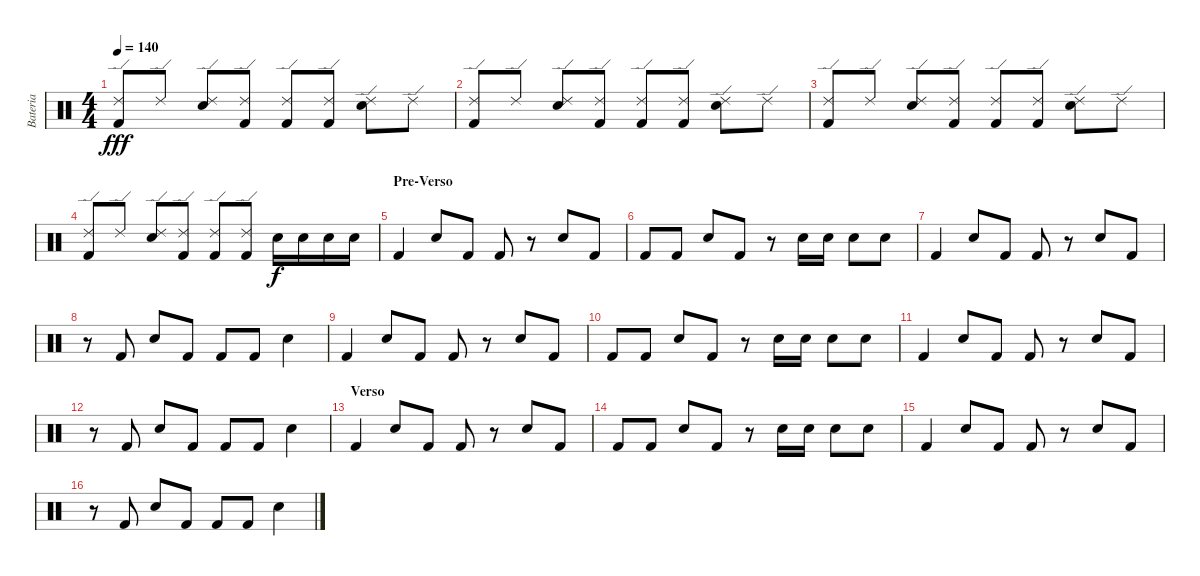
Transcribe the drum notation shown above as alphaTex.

\track ("Bateria" "Bateria") {instrument percussion}
\staff {score}
\articulation defaults
\ts (4 4)
\tempo 140
\clef neutral
\ks c
("Ride (edge) 2" "Kick (hit) 2").8{dy fff} "Ride (edge) 2".8 ("Ride (edge) 2" "Snare (hit) 2").8 ("Ride (edge) 2" "Kick (hit) 2").8 ("Ride (edge) 2" "Kick (hit) 2").8 ("Ride (edge) 2" "Kick (hit) 2").8 ("Ride (edge) 2" "Snare (hit) 2").8 "Ride (edge) 2".8 |
("Ride (edge) 2" "Kick (hit) 2").8 "Ride (edge) 2".8 ("Ride (edge) 2" "Snare (hit) 2").8 ("Ride (edge) 2" "Kick (hit) 2").8 ("Ride (edge) 2" "Kick (hit) 2").8 ("Ride (edge) 2" "Kick (hit) 2").8 ("Ride (edge) 2" "Snare (hit) 2").8 "Ride (edge) 2".8 |
("Ride (edge) 2" "Kick (hit) 2").8 "Ride (edge) 2".8 ("Ride (edge) 2" "Snare (hit) 2").8 ("Ride (edge) 2" "Kick (hit) 2").8 ("Ride (edge) 2" "Kick (hit) 2").8 ("Ride (edge) 2" "Kick (hit) 2").8 ("Ride (edge) 2" "Snare (hit) 2").8 "Ride (edge) 2".8 |
("Ride (edge) 2" "Kick (hit) 2").8 "Ride (edge) 2".8 ("Ride (edge) 2" "Snare (hit) 2").8 ("Ride (edge) 2" "Kick (hit) 2").8 ("Ride (edge) 2" "Kick (hit) 2").8 ("Ride (edge) 2" "Kick (hit) 2").8 "Snare (hit) 2".16{dy f} "Snare (hit) 2".16 "Snare (hit) 2".16 "Snare (hit) 2".16 |
\section ("" "Pre-Verso")
"Kick (hit) 2".4 "Snare (hit) 2".8 "Kick (hit) 2".8 "Kick (hit) 2".8 r.8 "Snare (hit) 2".8 "Kick (hit) 2".8 |
"Kick (hit) 2".8 "Kick (hit) 2".8 "Snare (hit) 2".8 "Kick (hit) 2".8 r.8 "Snare (hit) 2".16 "Snare (hit) 2".16 "Snare (hit) 2".8 "Snare (hit) 2".8 |
"Kick (hit) 2".4 "Snare (hit) 2".8 "Kick (hit) 2".8 "Kick (hit) 2".8 r.8 "Snare (hit) 2".8 "Kick (hit) 2".8 |
r.8 "Kick (hit) 2".8 "Snare (hit) 2".8 "Kick (hit) 2".8 "Kick (hit) 2".8 "Kick (hit) 2".8 "Snare (hit) 2".4 |
"Kick (hit) 2".4 "Snare (hit) 2".8 "Kick (hit) 2".8 "Kick (hit) 2".8 r.8 "Snare (hit) 2".8 "Kick (hit) 2".8 |
"Kick (hit) 2".8 "Kick (hit) 2".8 "Snare (hit) 2".8 "Kick (hit) 2".8 r.8 "Snare (hit) 2".16 "Snare (hit) 2".16 "Snare (hit) 2".8 "Snare (hit) 2".8 |
"Kick (hit) 2".4 "Snare (hit) 2".8 "Kick (hit) 2".8 "Kick (hit) 2".8 r.8 "Snare (hit) 2".8 "Kick (hit) 2".8 |
r.8 "Kick (hit) 2".8 "Snare (hit) 2".8 "Kick (hit) 2".8 "Kick (hit) 2".8 "Kick (hit) 2".8 "Snare (hit) 2".4 |
\section ("" "Verso")
"Kick (hit) 2".4 "Snare (hit) 2".8 "Kick (hit) 2".8 "Kick (hit) 2".8 r.8 "Snare (hit) 2".8 "Kick (hit) 2".8 |
"Kick (hit) 2".8 "Kick (hit) 2".8 "Snare (hit) 2".8 "Kick (hit) 2".8 r.8 "Snare (hit) 2".16 "Snare (hit) 2".16 "Snare (hit) 2".8 "Snare (hit) 2".8 |
"Kick (hit) 2".4 "Snare (hit) 2".8 "Kick (hit) 2".8 "Kick (hit) 2".8 r.8 "Snare (hit) 2".8 "Kick (hit) 2".8 |
r.8 "Kick (hit) 2".8 "Snare (hit) 2".8 "Kick (hit) 2".8 "Kick (hit) 2".8 "Kick (hit) 2".8 "Snare (hit) 2".4
